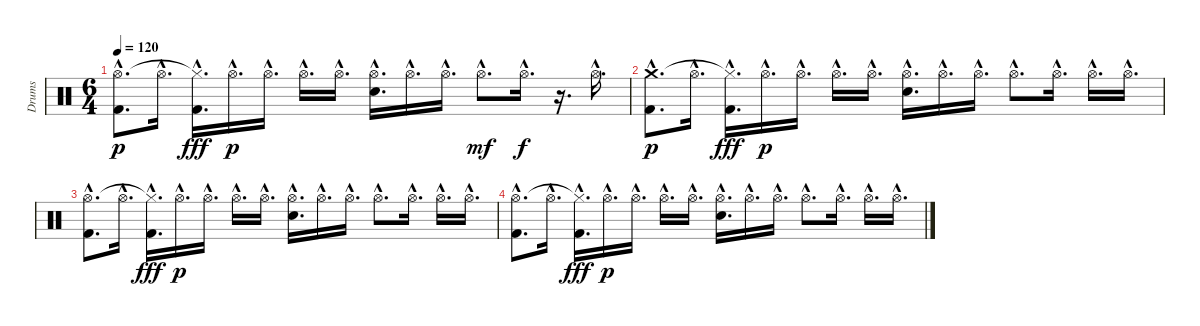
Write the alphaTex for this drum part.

\track ("Drums" "Drums") {instrument percussion}
\staff {score}
\articulation defaults
\ts (6 4)
\tempo 120
\clef neutral
\ks c
("Kick (hit) 2"{hac} "Hi-Hat (open)"{hac}).8{d dy p} "Hi-Hat (open)"{hac}.16{d} ("Kick (hit) 2"{hac} "Hi-Hat (closed)"{hac t}).16{d dy fff} "Hi-Hat (open)"{hac}.16{d dy p} "Hi-Hat (open)"{hac}.16{d} "Hi-Hat (open)"{hac}.16{d} "Hi-Hat (open)"{hac}.16{d} ("Electric Snare (hit)"{hac} "Hi-Hat (open)"{hac}).16{d} "Hi-Hat (open)"{hac}.16{d} "Hi-Hat (open)"{hac}.16{d} "Hi-Hat (open)"{hac}.8{d dy mf} "Hi-Hat (open)"{hac}.16{d dy f} r.16{d} "Hi-Hat (open)"{hac}.16{d} |
("Kick (hit) 2"{hac} "Crash medium (hit)"{hac}).8{d dy p} "Hi-Hat (open)"{hac}.16{d} ("Kick (hit) 2"{hac} "Hi-Hat (closed)"{hac t}).16{d dy fff} "Hi-Hat (open)"{hac}.16{d dy p} "Hi-Hat (open)"{hac}.16{d} "Hi-Hat (open)"{hac}.16{d} "Hi-Hat (open)"{hac}.16{d} ("Electric Snare (hit)"{hac} "Hi-Hat (open)"{hac}).16{d} "Hi-Hat (open)"{hac}.16{d} "Hi-Hat (open)"{hac}.16{d} "Hi-Hat (open)"{hac}.8{d} "Hi-Hat (open)"{hac}.16{d} "Hi-Hat (open)"{hac}.16{d} "Hi-Hat (open)"{hac}.16{d} |
("Kick (hit) 2"{hac} "Hi-Hat (open)"{hac}).8{d} "Hi-Hat (open)"{hac}.16{d} ("Kick (hit) 2"{hac} "Hi-Hat (closed)"{hac t}).16{d dy fff} "Hi-Hat (open)"{hac}.16{d dy p} "Hi-Hat (open)"{hac}.16{d} "Hi-Hat (open)"{hac}.16{d} "Hi-Hat (open)"{hac}.16{d} ("Electric Snare (hit)"{hac} "Hi-Hat (open)"{hac}).16{d} "Hi-Hat (open)"{hac}.16{d} "Hi-Hat (open)"{hac}.16{d} "Hi-Hat (open)"{hac}.8{d} "Hi-Hat (open)"{hac}.16{d} "Hi-Hat (open)"{hac}.16{d} "Hi-Hat (open)"{hac}.16{d} |
("Kick (hit) 2"{hac} "Hi-Hat (open)"{hac}).8{d} "Hi-Hat (open)"{hac}.16{d} ("Kick (hit) 2"{hac} "Hi-Hat (closed)"{hac t}).16{d dy fff} "Hi-Hat (open)"{hac}.16{d dy p} "Hi-Hat (open)"{hac}.16{d} "Hi-Hat (open)"{hac}.16{d} "Hi-Hat (open)"{hac}.16{d} ("Electric Snare (hit)"{hac} "Hi-Hat (open)"{hac}).16{d} "Hi-Hat (open)"{hac}.16{d} "Hi-Hat (open)"{hac}.16{d} "Hi-Hat (open)"{hac}.8{d} "Hi-Hat (open)"{hac}.16{d} "Hi-Hat (open)"{hac}.16{d} "Hi-Hat (open)"{hac}.16{d}
